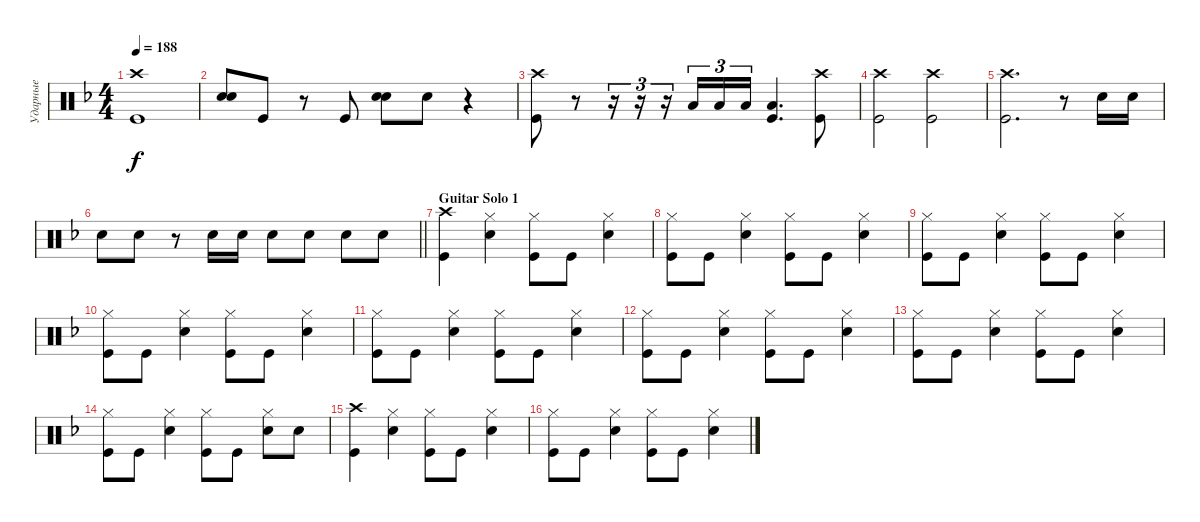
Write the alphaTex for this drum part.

\track ("Ударные" "Ударные") {instrument percussion}
\staff {score}
\articulation defaults
\ts (4 4)
\tempo 188
\clef neutral
\ks dminor
("Kick (hit)" "Crash high (hit)").1{dy f} |
("Snare (hit) 2" "Snare (hit) 2").8{bd 240} "Kick (hit)".8 r.8 "Kick (hit)".8 ("Snare (hit) 2" "Snare (hit) 2").8{bd 240} "Snare (hit) 2".8 r.4 |
("Kick (hit)" "Crash high (hit)").8 r.8 r.16{tu (3 2)} r.16{tu (3 2)} r.16{tu (3 2)} "Low Floor Tom (hit)".16{tu (3 2)} "Low Floor Tom (hit)".16{tu (3 2)} "Low Floor Tom (hit)".16{tu (3 2)} ("Kick (hit)" "Low Floor Tom (hit)").4{d} ("Kick (hit)" "Crash high (hit)").8 |
("Kick (hit)" "Crash high (hit)").2 ("Kick (hit)" "Crash high (hit)").2 |
("Kick (hit)" "Crash high (hit)").2{d} r.8 "Snare (hit) 2".16 "Snare (hit) 2".16 |
\barLineRight lightlight "Snare (hit) 2".8 "Snare (hit) 2".8
r.8 "Snare (hit) 2".16 "Snare (hit) 2".16 "Snare (hit) 2".8 "Snare (hit) 2".8 "Snare (hit) 2".8 "Snare (hit) 2".8 |
\section ("" "Guitar Solo 1")
("Kick (hit)" "Crash high (hit)").4 ("Snare (hit) 2" "Hi-Hat (closed)").4 ("Kick (hit)" "Hi-Hat (closed)").8 "Kick (hit)".8 ("Hi-Hat (closed)" "Snare (hit) 2").4 |
("Kick (hit)" "Hi-Hat (closed)").8 "Kick (hit)".8 ("Snare (hit) 2" "Hi-Hat (closed)").4 ("Kick (hit)" "Hi-Hat (closed)").8 "Kick (hit)".8 ("Hi-Hat (closed)" "Snare (hit) 2").4 |
("Kick (hit)" "Hi-Hat (closed)").8 "Kick (hit)".8 ("Snare (hit) 2" "Hi-Hat (closed)").4 ("Kick (hit)" "Hi-Hat (closed)").8 "Kick (hit)".8 ("Hi-Hat (closed)" "Snare (hit) 2").4 |
("Kick (hit)" "Hi-Hat (closed)").8 "Kick (hit)".8 ("Snare (hit) 2" "Hi-Hat (closed)").4 ("Kick (hit)" "Hi-Hat (closed)").8 "Kick (hit)".8 ("Hi-Hat (closed)" "Snare (hit) 2").4 |
("Kick (hit)" "Hi-Hat (closed)").8 "Kick (hit)".8 ("Snare (hit) 2" "Hi-Hat (closed)").4 ("Kick (hit)" "Hi-Hat (closed)").8 "Kick (hit)".8 ("Hi-Hat (closed)" "Snare (hit) 2").4 |
("Kick (hit)" "Hi-Hat (closed)").8 "Kick (hit)".8 ("Snare (hit) 2" "Hi-Hat (closed)").4 ("Kick (hit)" "Hi-Hat (closed)").8 "Kick (hit)".8 ("Hi-Hat (closed)" "Snare (hit) 2").4 |
("Kick (hit)" "Hi-Hat (closed)").8 "Kick (hit)".8 ("Snare (hit) 2" "Hi-Hat (closed)").4 ("Kick (hit)" "Hi-Hat (closed)").8 "Kick (hit)".8 ("Hi-Hat (closed)" "Snare (hit) 2").4 |
("Kick (hit)" "Hi-Hat (closed)").8 "Kick (hit)".8 ("Snare (hit) 2" "Hi-Hat (closed)").4 ("Kick (hit)" "Hi-Hat (closed)").8 "Kick (hit)".8 ("Hi-Hat (closed)" "Snare (hit) 2").8 "Snare (hit) 2".8 |
("Kick (hit)" "Crash high (hit)").4 ("Snare (hit) 2" "Hi-Hat (closed)").4 ("Kick (hit)" "Hi-Hat (closed)").8 "Kick (hit)".8 ("Hi-Hat (closed)" "Snare (hit) 2").4 |
("Kick (hit)" "Hi-Hat (closed)").8 "Kick (hit)".8 ("Snare (hit) 2" "Hi-Hat (closed)").4 ("Kick (hit)" "Hi-Hat (closed)").8 "Kick (hit)".8 ("Hi-Hat (closed)" "Snare (hit) 2").4
